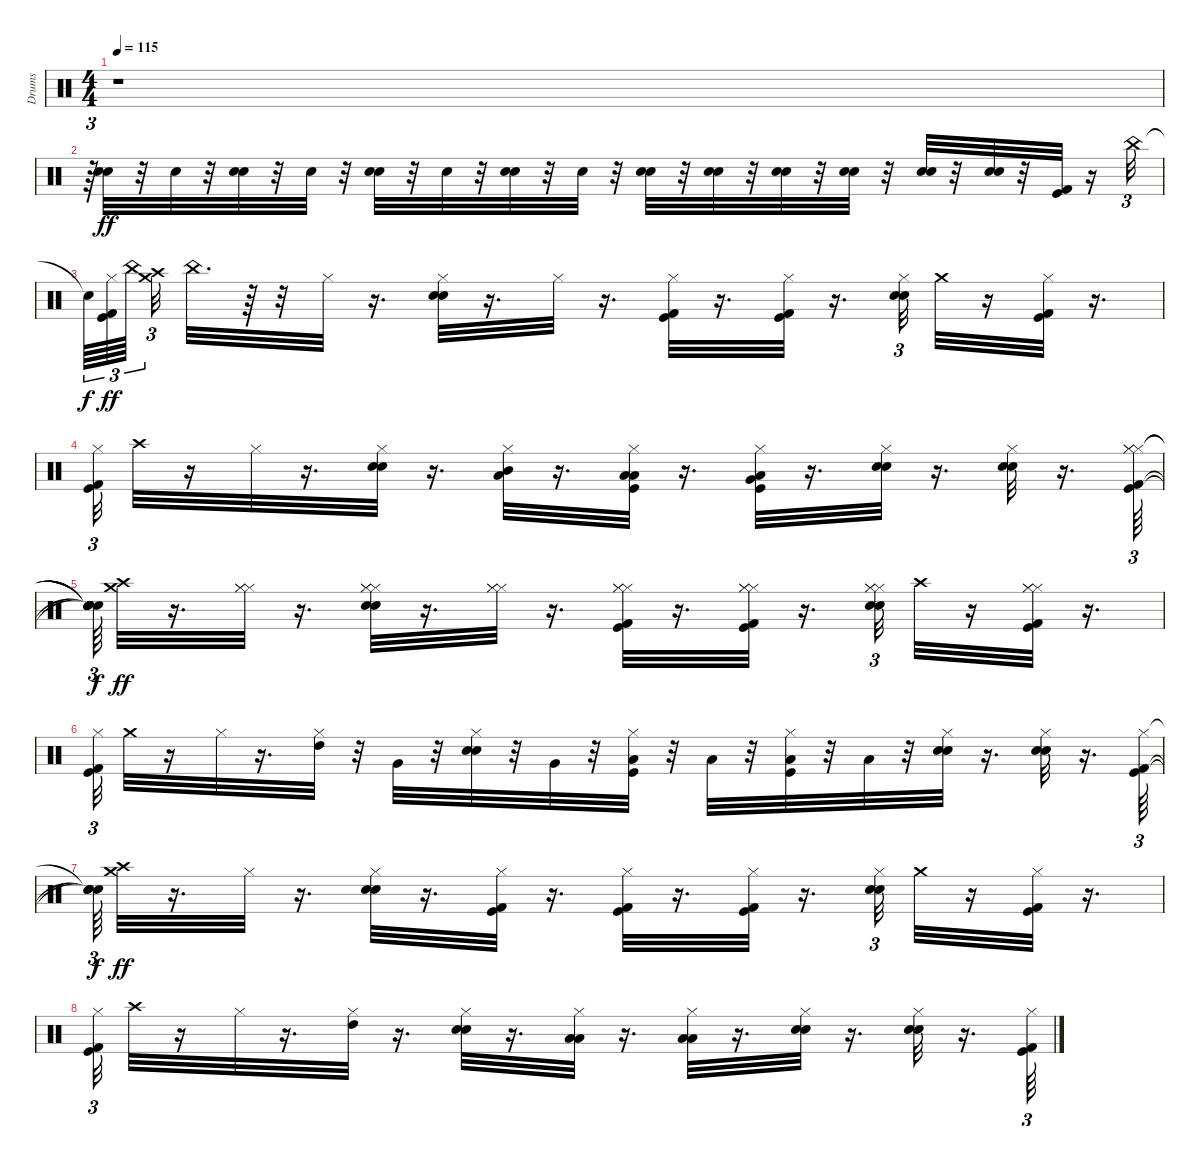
\track ("Drums" "Drums") {instrument percussion}
\staff {score}
\articulation defaults
\ts (4 4)
\tempo 115
\clef neutral
\ks c
r.1{dy ff} |
r.64{tu (3 2)} ("Snare (hit) 2" "Electric Snare (hit)").32 r.32 "Snare (hit) 2".32 r.32 ("Electric Snare (hit)" "Snare (hit) 2").32 r.32 "Snare (hit) 2".32 r.32 ("Electric Snare (hit)" "Snare (hit) 2").32 r.32 "Snare (hit) 2".32 r.32 ("Electric Snare (hit)" "Snare (hit) 2").32 r.32 "Snare (hit) 2".32 r.32 ("Electric Snare (hit)" "Snare (hit) 2").32 r.32 ("Snare (hit) 2" "Electric Snare (hit)").32 r.32 ("Snare (hit) 2" "Electric Snare (hit)").32 r.32 ("Snare (hit) 2" "Electric Snare (hit)").32 r.32 ("Electric Snare (hit)" "Snare (hit) 2").32 r.32 ("Snare (hit) 2" "Electric Snare (hit)").32 r.32 ("Kick (hit) 2" "Kick (hit)").32 r.16 "China (hit)".32{tu (3 2)} |
"Snare (hit)"{t}.64{tu (3 2) dy f} ("Kick (hit) 2" "Hi-Hat (closed)" "Kick (hit)").64{tu (3 2) dy ff} "China (hit)".64{tu (3 2)} ("Crash high (hit)" "Crash medium (hit)").32{tu (3 2)} "China (hit)".32{d} r.64 r.32 "Hi-Hat (closed)".32 r.16{d} ("Snare (hit) 2" "Hi-Hat (closed)" "Electric Snare (hit)").32 r.16{d} "Hi-Hat (closed)".32 r.16{d} ("Kick (hit)" "Hi-Hat (closed)" "Kick (hit) 2").32 r.16{d} ("Hi-Hat (closed)" "Kick (hit)" "Kick (hit) 2").32 r.16{d} ("Electric Snare (hit)" "Hi-Hat (closed)" "Snare (hit) 2").32{tu (3 2)} "Crash medium (hit)".32 r.16 ("Kick (hit)" "Kick (hit) 2" "Hi-Hat (closed)").32 r.16{d} |
("Kick (hit)" "Kick (hit) 2" "Hi-Hat (closed)").32{tu (3 2)} "Crash high (hit)".32 r.16 "Hi-Hat (closed)".32 r.16{d} ("Hi-Hat (closed)" "Electric Snare (hit)" "Snare (hit) 2").32 r.16{d} ("Low Floor Tom (hit)" "Mid Tom (hit)" "Hi-Hat (closed)").32 r.16{d} ("Kick (hit)" "Hi-Hat (closed)" "Low Floor Tom (hit)" "Low Tom (hit)").32 r.16{d} ("Very Low Tom (hit)" "Kick (hit)" "Low Floor Tom (hit)" "Hi-Hat (closed)").32 r.16{d} ("Snare (hit) 2" "Hi-Hat (closed)" "Electric Snare (hit)").32 r.16{d} ("Electric Snare (hit)" "Hi-Hat (closed)" "Snare (hit) 2").32 r.16{d} ("Hi-Hat (closed)" "Kick (hit) 2" "Kick (hit)" "Hi-Hat (closed)" "Hi-Hat (closed)").64{tu (3 2)} |
("Snare (hit)"{t} "Snare (hit)"{t} "Snare (hit)"{t} "Snare (hit)"{t} "Snare (hit)"{t}).64{tu (3 2) dy f} ("Crash medium (hit)" "Crash high (hit)").32{dy ff} r.16{d} ("Hi-Hat (closed)" "Hi-Hat (closed)" "Hi-Hat (closed)").32 r.16{d} ("Snare (hit) 2" "Hi-Hat (closed)" "Hi-Hat (closed)" "Electric Snare (hit)" "Hi-Hat (closed)").32 r.16{d} ("Hi-Hat (closed)" "Hi-Hat (closed)" "Hi-Hat (closed)").32 r.16{d} ("Kick (hit)" "Hi-Hat (closed)" "Kick (hit) 2" "Hi-Hat (closed)" "Hi-Hat (closed)").32 r.16{d} ("Hi-Hat (closed)" "Hi-Hat (closed)" "Hi-Hat (closed)" "Kick (hit) 2" "Kick (hit)").32 r.16{d} ("Electric Snare (hit)" "Hi-Hat (closed)" "Hi-Hat (closed)" "Snare (hit) 2" "Hi-Hat (closed)").32{tu (3 2)} "Crash high (hit)".32 r.16 ("Kick (hit) 2" "Kick (hit)" "Hi-Hat (closed)" "Hi-Hat (closed)" "Hi-Hat (closed)").32 r.16{d} |
("Hi-Hat (closed)" "Kick (hit)" "Kick (hit) 2").32{tu (3 2)} "Crash medium (hit)".32 r.16 "Hi-Hat (closed)".32 r.16{d} ("High Tom (hit)" "Hi-Hat (closed)").32 r.32 "Very Low Tom (hit)".32 r.32 ("Snare (hit) 2" "Electric Snare (hit)" "Hi-Hat (closed)").32 r.32 "Very Low Tom (hit)".32 r.32 ("Hi-Hat (closed)" "Low Tom (hit)" "Kick (hit)").32 r.32 "Low Floor Tom (hit)".32 r.32 ("Kick (hit)" "Hi-Hat (closed)" "Low Tom (hit)").32 r.32 "Low Floor Tom (hit)".32 r.32 ("Electric Snare (hit)" "Hi-Hat (closed)" "Snare (hit) 2").32 r.16{d} ("Snare (hit) 2" "Hi-Hat (closed)" "Electric Snare (hit)").32 r.16{d} ("Hi-Hat (closed)" "Kick (hit)" "Kick (hit) 2").64{tu (3 2)} |
("Snare (hit)"{t} "Snare (hit)"{t} "Snare (hit)"{t}).64{tu (3 2) dy f} ("Crash high (hit)" "Crash medium (hit)").32{dy ff} r.16{d} "Hi-Hat (closed)".32 r.16{d} ("Hi-Hat (closed)" "Electric Snare (hit)" "Snare (hit) 2").32 r.16{d} ("Kick (hit)" "Hi-Hat (closed)" "Kick (hit) 2").32 r.16{d} ("Kick (hit) 2" "Hi-Hat (closed)" "Kick (hit)").32 r.16{d} ("Hi-Hat (closed)" "Kick (hit)" "Kick (hit) 2").32 r.16{d} ("Snare (hit) 2" "Hi-Hat (closed)" "Electric Snare (hit)").32{tu (3 2)} "Crash medium (hit)".32 r.16 ("Kick (hit)" "Hi-Hat (closed)" "Kick (hit) 2").32 r.16{d} |
("Kick (hit)" "Kick (hit) 2" "Hi-Hat (closed)").32{tu (3 2)} "Crash high (hit)".32 r.16 "Hi-Hat (closed)".32 r.16{d} ("Hi-Hat (closed)" "High Tom (hit)").32 r.16{d} ("Electric Snare (hit)" "Hi-Hat (closed)" "Snare (hit) 2").32 r.16{d} ("Hi-Hat (closed)" "Low Floor Tom (hit)" "Low Tom (hit)").32 r.16{d} ("Low Floor Tom (hit)" "Hi-Hat (closed)" "Low Tom (hit)").32 r.16{d} ("Hi-Hat (closed)" "Snare (hit) 2" "Electric Snare (hit)").32 r.16{d} ("Hi-Hat (closed)" "Snare (hit) 2" "Electric Snare (hit)").32 r.16{d} ("Kick (hit)" "Hi-Hat (closed)" "Kick (hit) 2").64{tu (3 2)}
